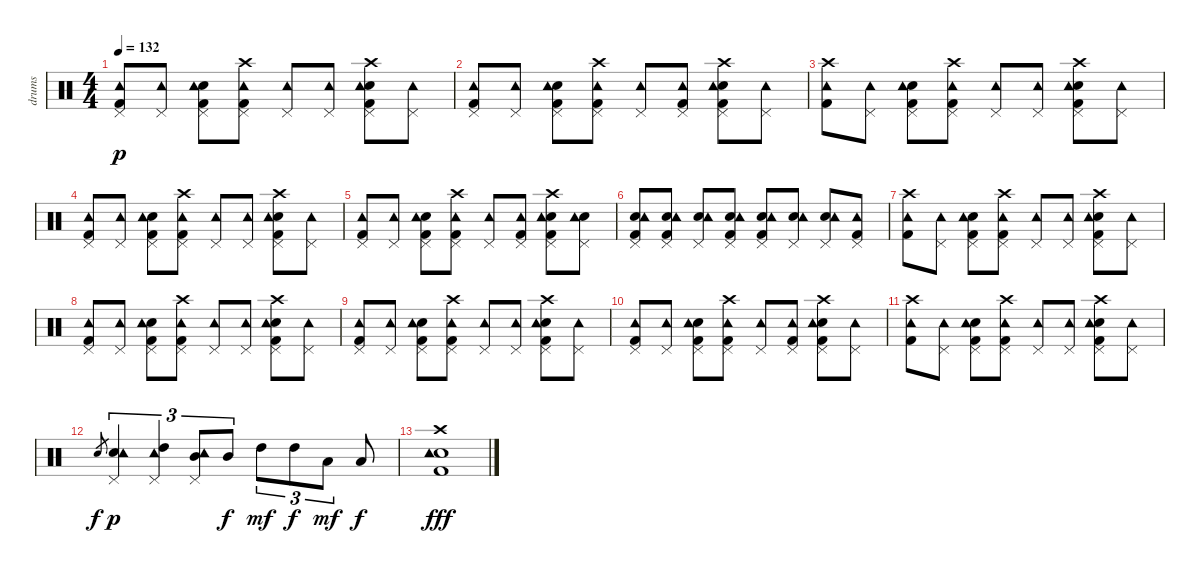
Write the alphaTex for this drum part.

\track ("drums" "drums") {instrument percussion}
\staff {score}
\articulation defaults
\ts (4 4)
\tempo 132
\clef neutral
\ks c
("Kick (hit) 2" "Pedal Hi-Hat (hit)" "Tambourine (hit)").8{dy p} ("Pedal Hi-Hat (hit)" "Tambourine (hit)").8 ("Electric Snare (hit)" "Kick (hit) 2" "Pedal Hi-Hat (hit)" "Tambourine (hit)").8 ("Crash high (hit)" "Kick (hit) 2" "Pedal Hi-Hat (hit)" "Tambourine (hit)").8 ("Pedal Hi-Hat (hit)" "Tambourine (hit)").8 ("Pedal Hi-Hat (hit)" "Tambourine (hit)").8 ("Electric Snare (hit)" "Crash high (hit)" "Kick (hit) 2" "Pedal Hi-Hat (hit)" "Tambourine (hit)").8 ("Pedal Hi-Hat (hit)" "Tambourine (hit)").8 |
("Kick (hit) 2" "Pedal Hi-Hat (hit)" "Tambourine (hit)").8 ("Pedal Hi-Hat (hit)" "Tambourine (hit)").8 ("Electric Snare (hit)" "Kick (hit) 2" "Pedal Hi-Hat (hit)" "Tambourine (hit)").8 ("Crash high (hit)" "Kick (hit) 2" "Pedal Hi-Hat (hit)" "Tambourine (hit)").8 ("Pedal Hi-Hat (hit)" "Tambourine (hit)").8 ("Kick (hit) 2" "Pedal Hi-Hat (hit)" "Tambourine (hit)").8 ("Electric Snare (hit)" "Crash high (hit)" "Kick (hit) 2" "Pedal Hi-Hat (hit)" "Tambourine (hit)").8 ("Pedal Hi-Hat (hit)" "Tambourine (hit)").8 |
("Kick (hit) 2" "Crash high (hit)" "Tambourine (hit)").8 ("Pedal Hi-Hat (hit)" "Tambourine (hit)").8 ("Electric Snare (hit)" "Kick (hit) 2" "Pedal Hi-Hat (hit)" "Tambourine (hit)").8 ("Crash high (hit)" "Kick (hit) 2" "Pedal Hi-Hat (hit)" "Tambourine (hit)").8 ("Pedal Hi-Hat (hit)" "Tambourine (hit)").8 ("Pedal Hi-Hat (hit)" "Tambourine (hit)").8 ("Electric Snare (hit)" "Crash high (hit)" "Kick (hit) 2" "Pedal Hi-Hat (hit)" "Tambourine (hit)").8 ("Pedal Hi-Hat (hit)" "Tambourine (hit)").8 |
("Kick (hit) 2" "Pedal Hi-Hat (hit)" "Tambourine (hit)").8 ("Pedal Hi-Hat (hit)" "Tambourine (hit)").8 ("Electric Snare (hit)" "Kick (hit) 2" "Pedal Hi-Hat (hit)" "Tambourine (hit)").8 ("Crash high (hit)" "Kick (hit) 2" "Pedal Hi-Hat (hit)" "Tambourine (hit)").8 ("Pedal Hi-Hat (hit)" "Tambourine (hit)").8 ("Pedal Hi-Hat (hit)" "Tambourine (hit)").8 ("Electric Snare (hit)" "Crash high (hit)" "Kick (hit) 2" "Pedal Hi-Hat (hit)" "Tambourine (hit)").8 ("Pedal Hi-Hat (hit)" "Tambourine (hit)").8 |
("Kick (hit) 2" "Pedal Hi-Hat (hit)" "Tambourine (hit)").8 ("Pedal Hi-Hat (hit)" "Tambourine (hit)").8 ("Electric Snare (hit)" "Kick (hit) 2" "Pedal Hi-Hat (hit)" "Tambourine (hit)").8 ("Crash high (hit)" "Kick (hit) 2" "Pedal Hi-Hat (hit)" "Tambourine (hit)").8 ("Pedal Hi-Hat (hit)" "Tambourine (hit)").8 ("Kick (hit) 2" "Pedal Hi-Hat (hit)" "Tambourine (hit)").8 ("Electric Snare (hit)" "Crash high (hit)" "Kick (hit) 2" "Pedal Hi-Hat (hit)" "Tambourine (hit)").8 ("Snare (hit) 2"{tr (38 16)} "Pedal Hi-Hat (hit)" "Tambourine (hit)").8 |
("Electric Snare (hit)" "Kick (hit) 2" "Pedal Hi-Hat (hit)" "Tambourine (hit)").8 ("Electric Snare (hit)" "Kick (hit) 2" "Pedal Hi-Hat (hit)" "Tambourine (hit)").8 ("Snare (hit) 2"{tr (38 16)} "Pedal Hi-Hat (hit)" "Tambourine (hit)").8 ("Electric Snare (hit)" "Kick (hit) 2" "Pedal Hi-Hat (hit)" "Tambourine (hit)").8 ("Electric Snare (hit)" "Kick (hit) 2" "Pedal Hi-Hat (hit)" "Tambourine (hit)").8 ("Snare (hit) 2"{tr (38 16)} "Pedal Hi-Hat (hit)" "Tambourine (hit)").8 ("Electric Snare (hit)" "Pedal Hi-Hat (hit)" "Tambourine (hit)").8 ("Kick (hit) 2" "Pedal Hi-Hat (hit)" "Tambourine (hit)").8 |
("Kick (hit) 2" "Crash high (hit)" "Tambourine (hit)").8 ("Pedal Hi-Hat (hit)" "Tambourine (hit)").8 ("Electric Snare (hit)" "Kick (hit) 2" "Pedal Hi-Hat (hit)" "Tambourine (hit)").8 ("Crash high (hit)" "Kick (hit) 2" "Pedal Hi-Hat (hit)" "Tambourine (hit)").8 ("Pedal Hi-Hat (hit)" "Tambourine (hit)").8 ("Pedal Hi-Hat (hit)" "Tambourine (hit)").8 ("Electric Snare (hit)" "Crash high (hit)" "Kick (hit) 2" "Pedal Hi-Hat (hit)" "Tambourine (hit)").8 ("Pedal Hi-Hat (hit)" "Tambourine (hit)").8 |
("Kick (hit) 2" "Pedal Hi-Hat (hit)" "Tambourine (hit)").8 ("Pedal Hi-Hat (hit)" "Tambourine (hit)").8 ("Electric Snare (hit)" "Kick (hit) 2" "Pedal Hi-Hat (hit)" "Tambourine (hit)").8 ("Crash high (hit)" "Kick (hit) 2" "Pedal Hi-Hat (hit)" "Tambourine (hit)").8 ("Pedal Hi-Hat (hit)" "Tambourine (hit)").8 ("Pedal Hi-Hat (hit)" "Tambourine (hit)").8 ("Electric Snare (hit)" "Crash high (hit)" "Kick (hit) 2" "Pedal Hi-Hat (hit)" "Tambourine (hit)").8 ("Pedal Hi-Hat (hit)" "Tambourine (hit)").8 |
("Kick (hit) 2" "Pedal Hi-Hat (hit)" "Tambourine (hit)").8 ("Pedal Hi-Hat (hit)" "Tambourine (hit)").8 ("Electric Snare (hit)" "Kick (hit) 2" "Pedal Hi-Hat (hit)" "Tambourine (hit)").8 ("Crash high (hit)" "Kick (hit) 2" "Pedal Hi-Hat (hit)" "Tambourine (hit)").8 ("Pedal Hi-Hat (hit)" "Tambourine (hit)").8 ("Pedal Hi-Hat (hit)" "Tambourine (hit)").8 ("Electric Snare (hit)" "Crash high (hit)" "Kick (hit) 2" "Pedal Hi-Hat (hit)" "Tambourine (hit)").8 ("Pedal Hi-Hat (hit)" "Tambourine (hit)").8 |
("Kick (hit) 2" "Pedal Hi-Hat (hit)" "Tambourine (hit)").8 ("Pedal Hi-Hat (hit)" "Tambourine (hit)").8 ("Electric Snare (hit)" "Kick (hit) 2" "Pedal Hi-Hat (hit)" "Tambourine (hit)").8 ("Crash high (hit)" "Kick (hit) 2" "Pedal Hi-Hat (hit)" "Tambourine (hit)").8 ("Pedal Hi-Hat (hit)" "Tambourine (hit)").8 ("Kick (hit) 2" "Pedal Hi-Hat (hit)" "Tambourine (hit)").8 ("Electric Snare (hit)" "Crash high (hit)" "Kick (hit) 2" "Pedal Hi-Hat (hit)" "Tambourine (hit)").8 ("Pedal Hi-Hat (hit)" "Tambourine (hit)").8 |
("Kick (hit) 2" "Crash high (hit)" "Tambourine (hit)").8 ("Pedal Hi-Hat (hit)" "Tambourine (hit)").8 ("Electric Snare (hit)" "Kick (hit) 2" "Pedal Hi-Hat (hit)" "Tambourine (hit)").8 ("Crash high (hit)" "Kick (hit) 2" "Pedal Hi-Hat (hit)" "Tambourine (hit)").8 ("Pedal Hi-Hat (hit)" "Tambourine (hit)").8 ("Pedal Hi-Hat (hit)" "Tambourine (hit)").8 ("Electric Snare (hit)" "Crash high (hit)" "Kick (hit) 2" "Pedal Hi-Hat (hit)" "Tambourine (hit)").8 ("Pedal Hi-Hat (hit)" "Tambourine (hit)").8 |
"Electric Snare (hit)".8{gr dy f} ("Electric Snare (hit)" "Pedal Hi-Hat (hit)" "Tambourine (hit)").4{tu (3 2) dy p} ("High Tom (hit)" "Pedal Hi-Hat (hit)" "Tambourine (hit)").4{tu (3 2)} ("Mid Tom (hit)" "Pedal Hi-Hat (hit)" "Tambourine (hit)").8{tu (3 2)} "Mid Tom (hit)".8{tu (3 2) dy f} "High Tom (hit)".8{tu (3 2) dy mf} "High Tom (hit)".8{tu (3 2) dy f} "Low Tom (hit)".8{tu (3 2) dy mf} "Low Tom (hit)".8{dy f} |
("Electric Snare (hit)" "Kick (hit) 2" "Crash high (hit)" "Tambourine (hit)").1{dy fff}
